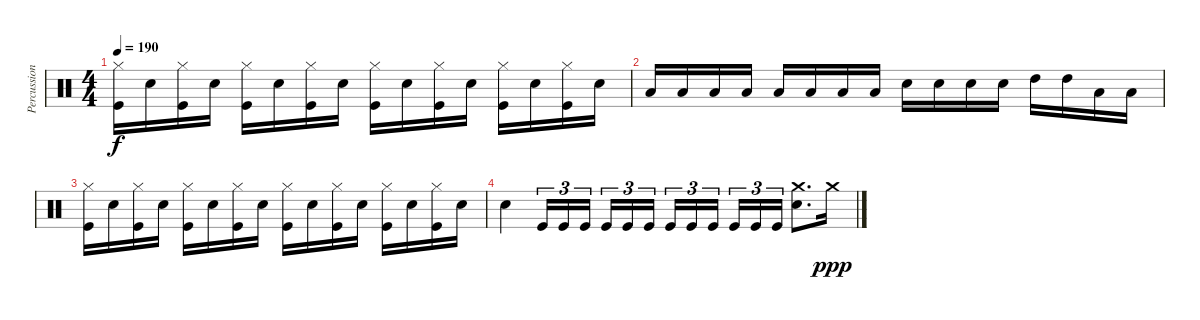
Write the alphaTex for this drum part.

\track ("Percussion" "Percussion") {instrument percussion}
\staff {score}
\articulation defaults
\ts (4 4)
\tempo 190
\clef neutral
\ks c
("Hi-Hat (closed)" "Kick (hit)").16{dy f} "Snare (hit) 2".16 ("Hi-Hat (closed)" "Kick (hit)").16 "Snare (hit) 2".16 ("Hi-Hat (closed)" "Kick (hit)").16 "Snare (hit) 2".16 ("Hi-Hat (closed)" "Kick (hit)").16 "Snare (hit) 2".16 ("Hi-Hat (closed)" "Kick (hit)").16 "Snare (hit) 2".16 ("Hi-Hat (closed)" "Kick (hit)").16 "Snare (hit) 2".16 ("Hi-Hat (closed)" "Kick (hit)").16 "Snare (hit) 2".16 ("Hi-Hat (closed)" "Kick (hit)").16 "Snare (hit) 2".16 |
"Low Floor Tom (hit)".16 "Low Floor Tom (hit)".16 "Low Floor Tom (hit)".16 "Low Floor Tom (hit)".16 "Low Floor Tom (hit)".16 "Low Floor Tom (hit)".16 "Low Floor Tom (hit)".16 "Low Floor Tom (hit)".16 "Snare (hit) 2".16 "Snare (hit) 2".16 "Snare (hit) 2".16 "Snare (hit) 2".16 "High Tom (hit)".16 "High Tom (hit)".16 "Low Tom (hit)".16 "Low Tom (hit)".16 |
("Hi-Hat (closed)" "Kick (hit)").16 "Snare (hit) 2".16 ("Hi-Hat (closed)" "Kick (hit)").16 "Snare (hit) 2".16 ("Hi-Hat (closed)" "Kick (hit)").16 "Snare (hit) 2".16 ("Hi-Hat (closed)" "Kick (hit)").16 "Snare (hit) 2".16 ("Hi-Hat (closed)" "Kick (hit)").16 "Snare (hit) 2".16 ("Hi-Hat (closed)" "Kick (hit)").16 "Snare (hit) 2".16 ("Hi-Hat (closed)" "Kick (hit)").16 "Snare (hit) 2".16 ("Hi-Hat (closed)" "Kick (hit)").16 "Snare (hit) 2".16 |
"Snare (hit) 2".4 "Kick (hit)".16{tu (3 2)} "Kick (hit)".16{tu (3 2)} "Kick (hit)".16{tu (3 2) beam splitsecondary} "Kick (hit)".16{tu (3 2)} "Kick (hit)".16{tu (3 2)} "Kick (hit)".16{tu (3 2)} "Kick (hit)".16{tu (3 2)} "Kick (hit)".16{tu (3 2)} "Kick (hit)".16{tu (3 2) beam splitsecondary} "Kick (hit)".16{tu (3 2)} "Kick (hit)".16{tu (3 2)} "Kick (hit)".16{tu (3 2)} ("Crash medium (hit)" "Snare (hit) 2").8{d} "Crash medium (hit)".16{dy ppp}
